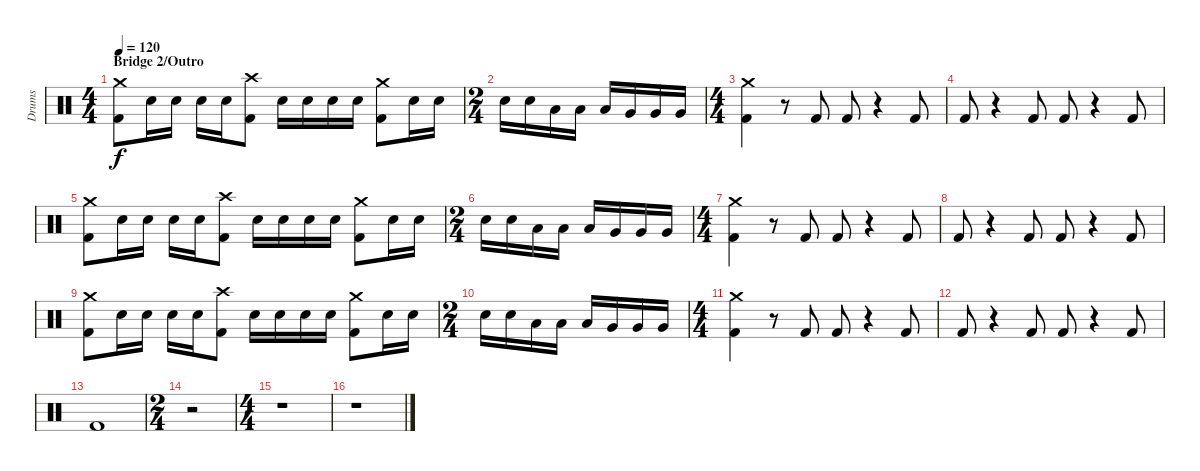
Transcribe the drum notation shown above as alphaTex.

\track ("Drums" "Drums") {instrument percussion}
\staff {score}
\articulation defaults
\ts (4 4)
\section ("" "Bridge 2/Outro")
\tempo 120
\clef neutral
\ks c
("Crash medium (hit)" "Kick (hit) 2").8{dy f} "Electric Snare (hit)".16 "Electric Snare (hit)".16 "Electric Snare (hit)".16 "Electric Snare (hit)".16 ("Crash high (hit)" "Kick (hit) 2").8 "Electric Snare (hit)".16 "Electric Snare (hit)".16 "Electric Snare (hit)".16 "Electric Snare (hit)".16 ("Crash medium (hit)" "Kick (hit) 2").8 "Electric Snare (hit)".16 "Electric Snare (hit)".16 |
\ts (2 4)
"Electric Snare (hit)".16 "Electric Snare (hit)".16 "Low Tom (hit)".16 "Low Tom (hit)".16 "Low Tom (hit)".16 "Very Low Tom (hit)".16 "Very Low Tom (hit)".16 "Very Low Tom (hit)".16 |
\ts (4 4)
("Crash medium (hit)" "Kick (hit) 2").4 r.8 "Kick (hit) 2".8 "Kick (hit) 2".8 r.4 "Kick (hit) 2".8 |
"Kick (hit) 2".8 r.4 "Kick (hit) 2".8 "Kick (hit) 2".8 r.4 "Kick (hit) 2".8 |
("Crash medium (hit)" "Kick (hit) 2").8 "Electric Snare (hit)".16 "Electric Snare (hit)".16 "Electric Snare (hit)".16 "Electric Snare (hit)".16 ("Crash high (hit)" "Kick (hit) 2").8 "Electric Snare (hit)".16 "Electric Snare (hit)".16 "Electric Snare (hit)".16 "Electric Snare (hit)".16 ("Crash medium (hit)" "Kick (hit) 2").8 "Electric Snare (hit)".16 "Electric Snare (hit)".16 |
\ts (2 4)
"Electric Snare (hit)".16 "Electric Snare (hit)".16 "Low Tom (hit)".16 "Low Tom (hit)".16 "Low Tom (hit)".16 "Very Low Tom (hit)".16 "Very Low Tom (hit)".16 "Very Low Tom (hit)".16 |
\ts (4 4)
("Crash medium (hit)" "Kick (hit) 2").4 r.8 "Kick (hit) 2".8 "Kick (hit) 2".8 r.4 "Kick (hit) 2".8 |
"Kick (hit) 2".8 r.4 "Kick (hit) 2".8 "Kick (hit) 2".8 r.4 "Kick (hit) 2".8 |
("Crash medium (hit)" "Kick (hit) 2").8 "Electric Snare (hit)".16 "Electric Snare (hit)".16 "Electric Snare (hit)".16 "Electric Snare (hit)".16 ("Crash high (hit)" "Kick (hit) 2").8 "Electric Snare (hit)".16 "Electric Snare (hit)".16 "Electric Snare (hit)".16 "Electric Snare (hit)".16 ("Crash medium (hit)" "Kick (hit) 2").8 "Electric Snare (hit)".16 "Electric Snare (hit)".16 |
\ts (2 4)
"Electric Snare (hit)".16 "Electric Snare (hit)".16 "Low Tom (hit)".16 "Low Tom (hit)".16 "Low Tom (hit)".16 "Very Low Tom (hit)".16 "Very Low Tom (hit)".16 "Very Low Tom (hit)".16 |
\ts (4 4)
("Crash medium (hit)" "Kick (hit) 2").4 r.8 "Kick (hit) 2".8 "Kick (hit) 2".8 r.4 "Kick (hit) 2".8 |
"Kick (hit) 2".8 r.4 "Kick (hit) 2".8 "Kick (hit) 2".8 r.4 "Kick (hit) 2".8 |
"Kick (hit) 2".1 |
\ts (2 4)
r.2 |
\ts (4 4)
r.1 |
r.1
